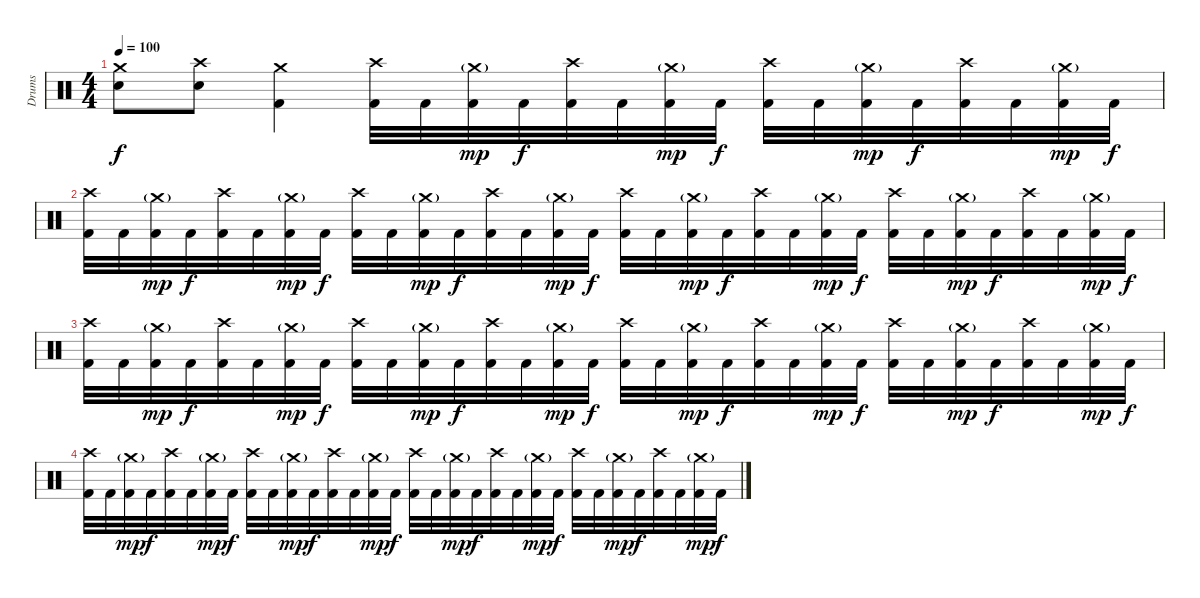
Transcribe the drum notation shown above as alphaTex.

\track ("Drums" "Drums") {instrument percussion}
\staff {score}
\articulation defaults
\ts (4 4)
\tempo 100
\clef neutral
\ks c
("Crash medium (hit)" "Electric Snare (hit)").8{dy f volume 0} ("Crash high (hit)" "Electric Snare (hit)").8 ("Crash medium (hit)" "Kick (hit) 2").4 ("Crash high (hit)" "Kick (hit) 2").32 "Kick (hit) 2".32 ("Crash medium (hit)"{g} "Kick (hit) 2").32{dy mp} "Kick (hit) 2".32{dy f} ("Crash high (hit)" "Kick (hit) 2").32 "Kick (hit) 2".32 ("Crash medium (hit)"{g} "Kick (hit) 2").32{dy mp} "Kick (hit) 2".32{dy f} ("Crash high (hit)" "Kick (hit) 2").32 "Kick (hit) 2".32 ("Crash medium (hit)"{g} "Kick (hit) 2").32{dy mp} "Kick (hit) 2".32{dy f} ("Crash high (hit)" "Kick (hit) 2").32 "Kick (hit) 2".32 ("Crash medium (hit)"{g} "Kick (hit) 2").32{dy mp} "Kick (hit) 2".32{dy f} |
("Crash high (hit)" "Kick (hit) 2").32 "Kick (hit) 2".32 ("Crash medium (hit)"{g} "Kick (hit) 2").32{dy mp} "Kick (hit) 2".32{dy f} ("Crash high (hit)" "Kick (hit) 2").32 "Kick (hit) 2".32 ("Crash medium (hit)"{g} "Kick (hit) 2").32{dy mp} "Kick (hit) 2".32{dy f} ("Crash high (hit)" "Kick (hit) 2").32 "Kick (hit) 2".32 ("Crash medium (hit)"{g} "Kick (hit) 2").32{dy mp} "Kick (hit) 2".32{dy f} ("Crash high (hit)" "Kick (hit) 2").32 "Kick (hit) 2".32 ("Crash medium (hit)"{g} "Kick (hit) 2").32{dy mp} "Kick (hit) 2".32{dy f} ("Crash high (hit)" "Kick (hit) 2").32 "Kick (hit) 2".32 ("Crash medium (hit)"{g} "Kick (hit) 2").32{dy mp} "Kick (hit) 2".32{dy f} ("Crash high (hit)" "Kick (hit) 2").32 "Kick (hit) 2".32 ("Crash medium (hit)"{g} "Kick (hit) 2").32{dy mp} "Kick (hit) 2".32{dy f} ("Crash high (hit)" "Kick (hit) 2").32 "Kick (hit) 2".32 ("Crash medium (hit)"{g} "Kick (hit) 2").32{dy mp} "Kick (hit) 2".32{dy f} ("Crash high (hit)" "Kick (hit) 2").32 "Kick (hit) 2".32 ("Crash medium (hit)"{g} "Kick (hit) 2").32{dy mp} "Kick (hit) 2".32{dy f} |
("Crash high (hit)" "Kick (hit) 2").32 "Kick (hit) 2".32 ("Crash medium (hit)"{g} "Kick (hit) 2").32{dy mp} "Kick (hit) 2".32{dy f} ("Crash high (hit)" "Kick (hit) 2").32 "Kick (hit) 2".32 ("Crash medium (hit)"{g} "Kick (hit) 2").32{dy mp} "Kick (hit) 2".32{dy f} ("Crash high (hit)" "Kick (hit) 2").32 "Kick (hit) 2".32 ("Crash medium (hit)"{g} "Kick (hit) 2").32{dy mp} "Kick (hit) 2".32{dy f} ("Crash high (hit)" "Kick (hit) 2").32 "Kick (hit) 2".32 ("Crash medium (hit)"{g} "Kick (hit) 2").32{dy mp} "Kick (hit) 2".32{dy f} ("Crash high (hit)" "Kick (hit) 2").32 "Kick (hit) 2".32 ("Crash medium (hit)"{g} "Kick (hit) 2").32{dy mp} "Kick (hit) 2".32{dy f} ("Crash high (hit)" "Kick (hit) 2").32 "Kick (hit) 2".32 ("Crash medium (hit)"{g} "Kick (hit) 2").32{dy mp} "Kick (hit) 2".32{dy f} ("Crash high (hit)" "Kick (hit) 2").32 "Kick (hit) 2".32 ("Crash medium (hit)"{g} "Kick (hit) 2").32{dy mp} "Kick (hit) 2".32{dy f} ("Crash high (hit)" "Kick (hit) 2").32 "Kick (hit) 2".32 ("Crash medium (hit)"{g} "Kick (hit) 2").32{dy mp} "Kick (hit) 2".32{dy f} |
("Crash high (hit)" "Kick (hit) 2").32 "Kick (hit) 2".32 ("Crash medium (hit)"{g} "Kick (hit) 2").32{dy mp} "Kick (hit) 2".32{dy f} ("Crash high (hit)" "Kick (hit) 2").32 "Kick (hit) 2".32 ("Crash medium (hit)"{g} "Kick (hit) 2").32{dy mp} "Kick (hit) 2".32{dy f} ("Crash high (hit)" "Kick (hit) 2").32 "Kick (hit) 2".32 ("Crash medium (hit)"{g} "Kick (hit) 2").32{dy mp} "Kick (hit) 2".32{dy f} ("Crash high (hit)" "Kick (hit) 2").32 "Kick (hit) 2".32 ("Crash medium (hit)"{g} "Kick (hit) 2").32{dy mp} "Kick (hit) 2".32{dy f} ("Crash high (hit)" "Kick (hit) 2").32 "Kick (hit) 2".32 ("Crash medium (hit)"{g} "Kick (hit) 2").32{dy mp} "Kick (hit) 2".32{dy f} ("Crash high (hit)" "Kick (hit) 2").32 "Kick (hit) 2".32 ("Crash medium (hit)"{g} "Kick (hit) 2").32{dy mp} "Kick (hit) 2".32{dy f} ("Crash high (hit)" "Kick (hit) 2").32 "Kick (hit) 2".32 ("Crash medium (hit)"{g} "Kick (hit) 2").32{dy mp} "Kick (hit) 2".32{dy f} ("Crash high (hit)" "Kick (hit) 2").32 "Kick (hit) 2".32 ("Crash medium (hit)"{g} "Kick (hit) 2").32{dy mp} "Kick (hit) 2".32{dy f}
